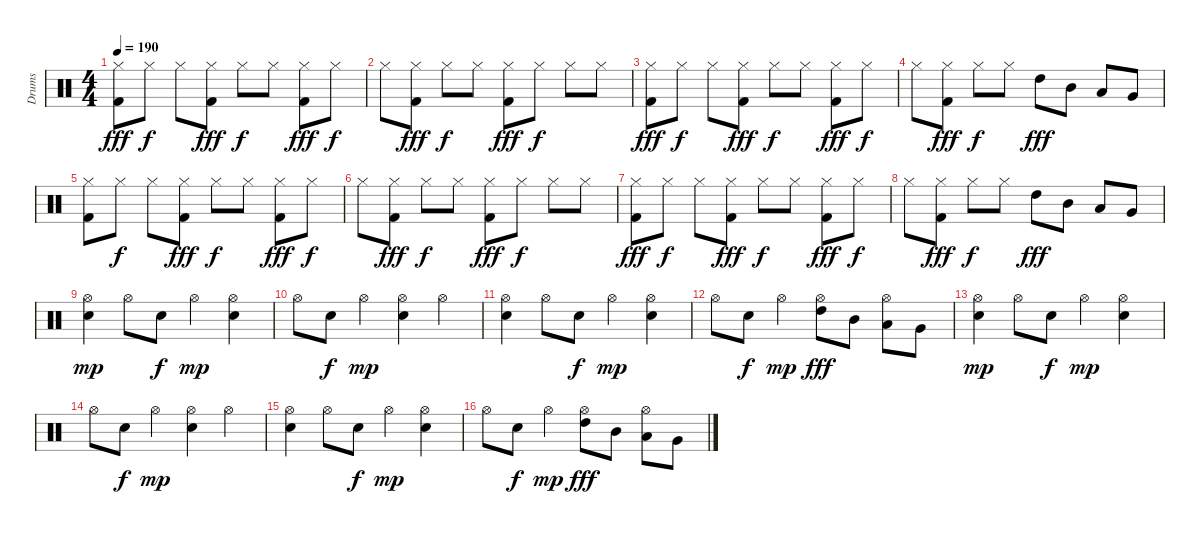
\track ("Drums" "Drums") {instrument percussion}
\staff {score}
\articulation defaults
\ts (4 4)
\tempo 190
\clef neutral
\ks c
("Hi-Hat (closed)" "Kick (hit) 2").8{dy fff} "Hi-Hat (closed)".8{dy f} "Hi-Hat (closed)".8 ("Hi-Hat (closed)" "Kick (hit) 2").8{dy fff} "Hi-Hat (closed)".8{dy f} "Hi-Hat (closed)".8 ("Hi-Hat (closed)" "Kick (hit) 2").8{dy fff} "Hi-Hat (closed)".8{dy f} |
"Hi-Hat (closed)".8 ("Hi-Hat (closed)" "Kick (hit) 2").8{dy fff} "Hi-Hat (closed)".8{dy f} "Hi-Hat (closed)".8 ("Hi-Hat (closed)" "Kick (hit) 2").8{dy fff} "Hi-Hat (closed)".8{dy f} "Hi-Hat (closed)".8 "Hi-Hat (closed)".8 |
("Hi-Hat (closed)" "Kick (hit) 2").8{dy fff} "Hi-Hat (closed)".8{dy f} "Hi-Hat (closed)".8 ("Hi-Hat (closed)" "Kick (hit) 2").8{dy fff} "Hi-Hat (closed)".8{dy f} "Hi-Hat (closed)".8 ("Hi-Hat (closed)" "Kick (hit) 2").8{dy fff} "Hi-Hat (closed)".8{dy f} |
"Hi-Hat (closed)".8 ("Hi-Hat (closed)" "Kick (hit) 2").8{dy fff} "Hi-Hat (closed)".8{dy f} "Hi-Hat (closed)".8 "High Tom (hit)".8{dy fff} "Mid Tom (hit)".8 "Low Tom (hit)".8 "Very Low Tom (hit)".8 |
("Hi-Hat (closed)" "Kick (hit) 2").8 "Hi-Hat (closed)".8{dy f} "Hi-Hat (closed)".8 ("Hi-Hat (closed)" "Kick (hit) 2").8{dy fff} "Hi-Hat (closed)".8{dy f} "Hi-Hat (closed)".8 ("Hi-Hat (closed)" "Kick (hit) 2").8{dy fff} "Hi-Hat (closed)".8{dy f} |
"Hi-Hat (closed)".8 ("Hi-Hat (closed)" "Kick (hit) 2").8{dy fff} "Hi-Hat (closed)".8{dy f} "Hi-Hat (closed)".8 ("Hi-Hat (closed)" "Kick (hit) 2").8{dy fff} "Hi-Hat (closed)".8{dy f} "Hi-Hat (closed)".8 "Hi-Hat (closed)".8 |
("Hi-Hat (closed)" "Kick (hit) 2").8{dy fff} "Hi-Hat (closed)".8{dy f} "Hi-Hat (closed)".8 ("Hi-Hat (closed)" "Kick (hit) 2").8{dy fff} "Hi-Hat (closed)".8{dy f} "Hi-Hat (closed)".8 ("Hi-Hat (closed)" "Kick (hit) 2").8{dy fff} "Hi-Hat (closed)".8{dy f} |
"Hi-Hat (closed)".8 ("Hi-Hat (closed)" "Kick (hit) 2").8{dy fff} "Hi-Hat (closed)".8{dy f} "Hi-Hat (closed)".8 "High Tom (hit)".8{dy fff} "Mid Tom (hit)".8 "Low Tom (hit)".8 "Very Low Tom (hit)".8 |
("Hi-Hat (open)" "Snare (hit) 2").4{dy mp} "Hi-Hat (open)".8 "Snare (hit) 2".8{dy f} "Hi-Hat (open)".4{dy mp} ("Hi-Hat (open)" "Snare (hit) 2").4 |
"Hi-Hat (open)".8 "Snare (hit) 2".8{dy f} "Hi-Hat (open)".4{dy mp} ("Hi-Hat (open)" "Snare (hit) 2").4 "Hi-Hat (open)".4 |
("Hi-Hat (open)" "Snare (hit) 2").4 "Hi-Hat (open)".8 "Snare (hit) 2".8{dy f} "Hi-Hat (open)".4{dy mp} ("Hi-Hat (open)" "Snare (hit) 2").4 |
"Hi-Hat (open)".8 "Snare (hit) 2".8{dy f} "Hi-Hat (open)".4{dy mp} ("Hi-Hat (open)" "High Tom (hit)").8{dy fff} "Mid Tom (hit)".8 ("Hi-Hat (open)" "Low Tom (hit)").8 "Very Low Tom (hit)".8 |
("Hi-Hat (open)" "Snare (hit) 2").4{dy mp} "Hi-Hat (open)".8 "Snare (hit) 2".8{dy f} "Hi-Hat (open)".4{dy mp} ("Hi-Hat (open)" "Snare (hit) 2").4 |
"Hi-Hat (open)".8 "Snare (hit) 2".8{dy f} "Hi-Hat (open)".4{dy mp} ("Hi-Hat (open)" "Snare (hit) 2").4 "Hi-Hat (open)".4 |
("Hi-Hat (open)" "Snare (hit) 2").4 "Hi-Hat (open)".8 "Snare (hit) 2".8{dy f} "Hi-Hat (open)".4{dy mp} ("Hi-Hat (open)" "Snare (hit) 2").4 |
"Hi-Hat (open)".8 "Snare (hit) 2".8{dy f} "Hi-Hat (open)".4{dy mp} ("Hi-Hat (open)" "High Tom (hit)").8{dy fff} "Mid Tom (hit)".8 ("Hi-Hat (open)" "Low Tom (hit)").8 "Very Low Tom (hit)".8
